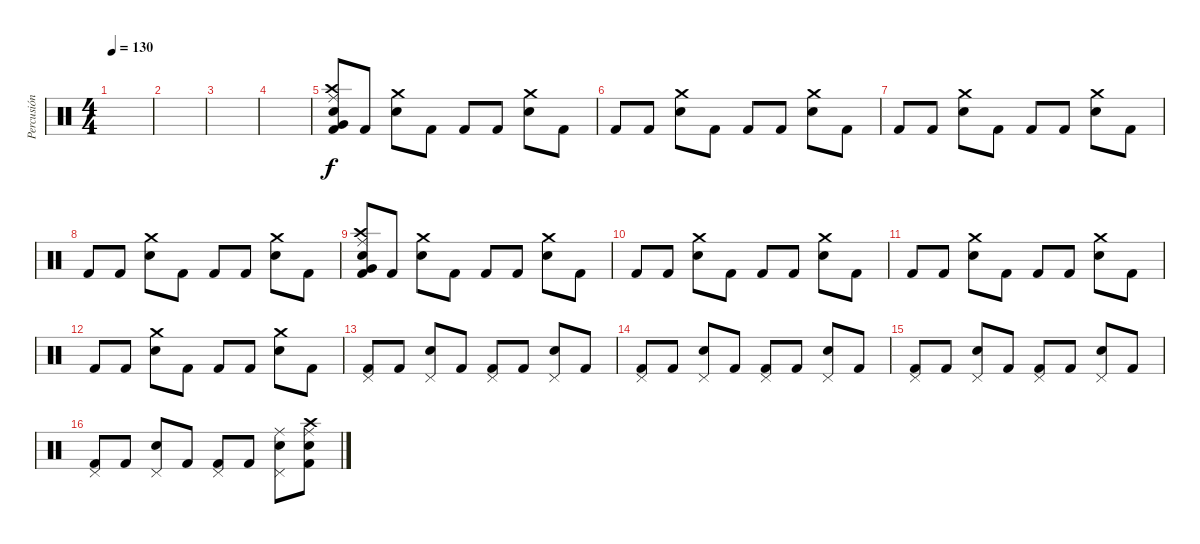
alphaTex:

\track ("Percusión" "Percusión") {instrument percussion}
\staff {score}
\articulation defaults
\ts (4 4)
\tempo 130
\clef neutral
\ks c
|
|
|
|
("Kick (hit) 2" "Ride (middle)" "Electric Snare (hit)" "Crash high (hit)" "Very Low Tom (hit)").8 "Kick (hit) 2".8 ("Electric Snare (hit)" "Crash medium (hit)").8 "Kick (hit) 2".8 "Kick (hit) 2".8 "Kick (hit) 2".8 ("Electric Snare (hit)" "Crash medium (hit)").8 "Kick (hit) 2".8 |
"Kick (hit) 2".8 "Kick (hit) 2".8 ("Electric Snare (hit)" "Crash medium (hit)").8 "Kick (hit) 2".8 "Kick (hit) 2".8 "Kick (hit) 2".8 ("Electric Snare (hit)" "Crash medium (hit)").8 "Kick (hit) 2".8 |
"Kick (hit) 2".8 "Kick (hit) 2".8 ("Electric Snare (hit)" "Crash medium (hit)").8 "Kick (hit) 2".8 "Kick (hit) 2".8 "Kick (hit) 2".8 ("Electric Snare (hit)" "Crash medium (hit)").8 "Kick (hit) 2".8 |
"Kick (hit) 2".8 "Kick (hit) 2".8 ("Electric Snare (hit)" "Crash medium (hit)").8 "Kick (hit) 2".8 "Kick (hit) 2".8 "Kick (hit) 2".8 ("Electric Snare (hit)" "Crash medium (hit)").8 "Kick (hit) 2".8 |
("Kick (hit) 2" "Ride (middle)" "Electric Snare (hit)" "Crash high (hit)" "Very Low Tom (hit)").8 "Kick (hit) 2".8 ("Electric Snare (hit)" "Crash medium (hit)").8 "Kick (hit) 2".8 "Kick (hit) 2".8 "Kick (hit) 2".8 ("Electric Snare (hit)" "Crash medium (hit)").8 "Kick (hit) 2".8 |
"Kick (hit) 2".8 "Kick (hit) 2".8 ("Electric Snare (hit)" "Crash medium (hit)").8 "Kick (hit) 2".8 "Kick (hit) 2".8 "Kick (hit) 2".8 ("Electric Snare (hit)" "Crash medium (hit)").8 "Kick (hit) 2".8 |
"Kick (hit) 2".8 "Kick (hit) 2".8 ("Electric Snare (hit)" "Crash medium (hit)").8 "Kick (hit) 2".8 "Kick (hit) 2".8 "Kick (hit) 2".8 ("Electric Snare (hit)" "Crash medium (hit)").8 "Kick (hit) 2".8 |
"Kick (hit) 2".8 "Kick (hit) 2".8 ("Electric Snare (hit)" "Crash medium (hit)").8 "Kick (hit) 2".8 "Kick (hit) 2".8 "Kick (hit) 2".8 ("Electric Snare (hit)" "Crash medium (hit)").8 "Kick (hit) 2".8 |
("Kick (hit) 2" "Pedal Hi-Hat (hit)").8 "Kick (hit) 2".8 ("Electric Snare (hit)" "Pedal Hi-Hat (hit)").8 "Kick (hit) 2".8 ("Kick (hit) 2" "Pedal Hi-Hat (hit)").8 "Kick (hit) 2".8 ("Electric Snare (hit)" "Pedal Hi-Hat (hit)").8 "Kick (hit) 2".8 |
("Kick (hit) 2" "Pedal Hi-Hat (hit)").8 "Kick (hit) 2".8 ("Electric Snare (hit)" "Pedal Hi-Hat (hit)").8 "Kick (hit) 2".8 ("Kick (hit) 2" "Pedal Hi-Hat (hit)").8 "Kick (hit) 2".8 ("Electric Snare (hit)" "Pedal Hi-Hat (hit)").8 "Kick (hit) 2".8 |
("Kick (hit) 2" "Pedal Hi-Hat (hit)").8 "Kick (hit) 2".8 ("Electric Snare (hit)" "Pedal Hi-Hat (hit)").8 "Kick (hit) 2".8 ("Kick (hit) 2" "Pedal Hi-Hat (hit)").8 "Kick (hit) 2".8 ("Electric Snare (hit)" "Pedal Hi-Hat (hit)").8 "Kick (hit) 2".8 |
("Kick (hit) 2" "Pedal Hi-Hat (hit)").8 "Kick (hit) 2".8 ("Electric Snare (hit)" "Pedal Hi-Hat (hit)").8 "Kick (hit) 2".8 ("Kick (hit) 2" "Pedal Hi-Hat (hit)").8 "Kick (hit) 2".8 ("Electric Snare (hit)" "Pedal Hi-Hat (hit)" "Ride (middle)").8 ("Kick (hit) 2" "Crash high (hit)" "Ride (middle)" "Electric Snare (hit)").8
